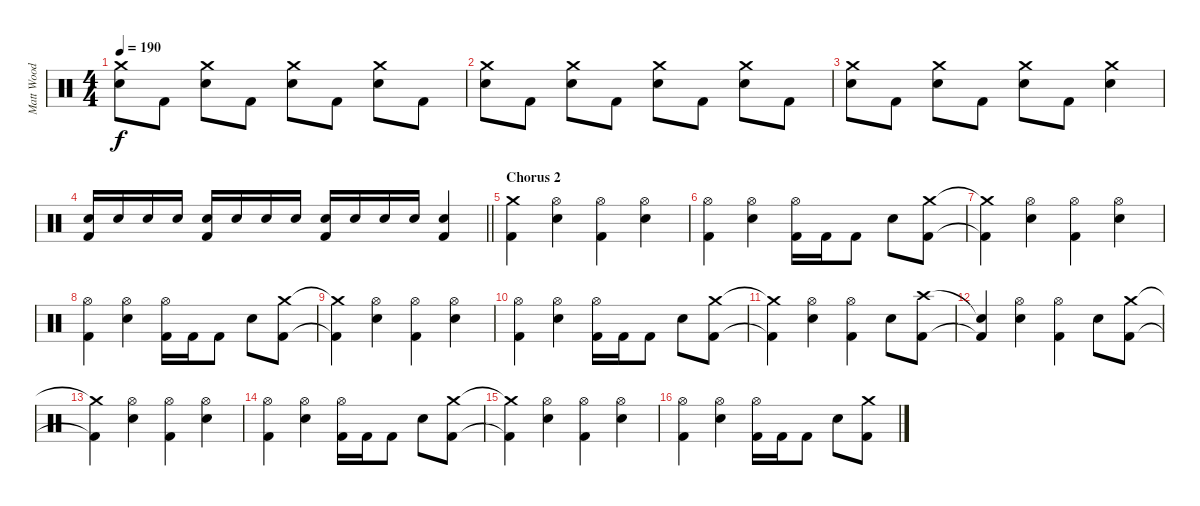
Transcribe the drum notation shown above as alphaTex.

\track ("Matt Wood" "Matt Wood") {instrument percussion}
\staff {score}
\articulation defaults
\ts (4 4)
\tempo 190
\clef neutral
\ks c
("Crash medium (hit)" "Snare (hit) 2").8{dy f} "Kick (hit) 2".8 ("Crash medium (hit)" "Snare (hit) 2").8 "Kick (hit) 2".8 ("Crash medium (hit)" "Snare (hit) 2").8 "Kick (hit) 2".8 ("Crash medium (hit)" "Snare (hit) 2").8 "Kick (hit) 2".8 |
("Crash medium (hit)" "Snare (hit) 2").8 "Kick (hit) 2".8 ("Crash medium (hit)" "Snare (hit) 2").8 "Kick (hit) 2".8 ("Crash medium (hit)" "Snare (hit) 2").8 "Kick (hit) 2".8 ("Crash medium (hit)" "Snare (hit) 2").8 "Kick (hit) 2".8 |
("Crash medium (hit)" "Snare (hit) 2").8 "Kick (hit) 2".8 ("Crash medium (hit)" "Snare (hit) 2").8 "Kick (hit) 2".8 ("Crash medium (hit)" "Snare (hit) 2").8 "Kick (hit) 2".8 ("Crash medium (hit)" "Snare (hit) 2").4 |
\barLineRight lightlight
("Snare (hit) 2" "Kick (hit) 2").16 "Snare (hit) 2".16 "Snare (hit) 2".16 "Snare (hit) 2".16 ("Snare (hit) 2" "Kick (hit) 2").16 "Snare (hit) 2".16 "Snare (hit) 2".16 "Snare (hit) 2".16 ("Snare (hit) 2" "Kick (hit) 2").16 "Snare (hit) 2".16 "Snare (hit) 2".16 "Snare (hit) 2".16 ("Snare (hit) 2" "Kick (hit) 2").4 |
\section ("" "Chorus 2")
("Crash medium (hit)" "Kick (hit) 2").4 ("Hi-Hat (open)" "Snare (hit) 2").4 ("Hi-Hat (open)" "Kick (hit) 2").4 ("Hi-Hat (open)" "Snare (hit) 2").4 |
("Hi-Hat (open)" "Kick (hit) 2").4 ("Hi-Hat (open)" "Snare (hit) 2").4 ("Hi-Hat (open)" "Kick (hit) 2").16 "Kick (hit) 2".16 "Kick (hit) 2".8 "Snare (hit) 2".8 ("Crash medium (hit)" "Kick (hit) 2").8 |
("Crash medium (hit)"{t} "Kick (hit) 2"{t}).4 ("Hi-Hat (open)" "Snare (hit) 2").4 ("Hi-Hat (open)" "Kick (hit) 2").4 ("Hi-Hat (open)" "Snare (hit) 2").4 |
("Hi-Hat (open)" "Kick (hit) 2").4 ("Hi-Hat (open)" "Snare (hit) 2").4 ("Hi-Hat (open)" "Kick (hit) 2").16 "Kick (hit) 2".16 "Kick (hit) 2".8 "Snare (hit) 2".8 ("Crash medium (hit)" "Kick (hit) 2").8 |
("Crash medium (hit)"{t} "Kick (hit) 2"{t}).4 ("Hi-Hat (open)" "Snare (hit) 2").4 ("Hi-Hat (open)" "Kick (hit) 2").4 ("Hi-Hat (open)" "Snare (hit) 2").4 |
("Hi-Hat (open)" "Kick (hit) 2").4 ("Hi-Hat (open)" "Snare (hit) 2").4 ("Hi-Hat (open)" "Kick (hit) 2").16 "Kick (hit) 2".16 "Kick (hit) 2".8 "Snare (hit) 2".8 ("Crash medium (hit)" "Kick (hit) 2").8 |
("Crash medium (hit)"{t} "Kick (hit) 2"{t}).4 ("Hi-Hat (open)" "Snare (hit) 2").4 ("Hi-Hat (open)" "Kick (hit) 2").4 "Snare (hit) 2".8 ("Crash high (hit)" "Kick (hit) 2").8 |
("Snare (hit)"{t} "Kick (hit) 2"{t}).4 ("Hi-Hat (open)" "Snare (hit) 2").4 ("Hi-Hat (open)" "Kick (hit) 2").4 "Snare (hit) 2".8 ("Crash medium (hit)" "Kick (hit) 2").8 |
("Crash medium (hit)"{t} "Kick (hit) 2"{t}).4 ("Hi-Hat (open)" "Snare (hit) 2").4 ("Hi-Hat (open)" "Kick (hit) 2").4 ("Hi-Hat (open)" "Snare (hit) 2").4 |
("Hi-Hat (open)" "Kick (hit) 2").4 ("Hi-Hat (open)" "Snare (hit) 2").4 ("Hi-Hat (open)" "Kick (hit) 2").16 "Kick (hit) 2".16 "Kick (hit) 2".8 "Snare (hit) 2".8 ("Crash medium (hit)" "Kick (hit) 2").8 |
("Crash medium (hit)"{t} "Kick (hit) 2"{t}).4 ("Hi-Hat (open)" "Snare (hit) 2").4 ("Hi-Hat (open)" "Kick (hit) 2").4 ("Hi-Hat (open)" "Snare (hit) 2").4 |
("Hi-Hat (open)" "Kick (hit) 2").4 ("Hi-Hat (open)" "Snare (hit) 2").4 ("Hi-Hat (open)" "Kick (hit) 2").16 "Kick (hit) 2".16 "Kick (hit) 2".8 "Snare (hit) 2".8 ("Crash medium (hit)" "Kick (hit) 2").8
